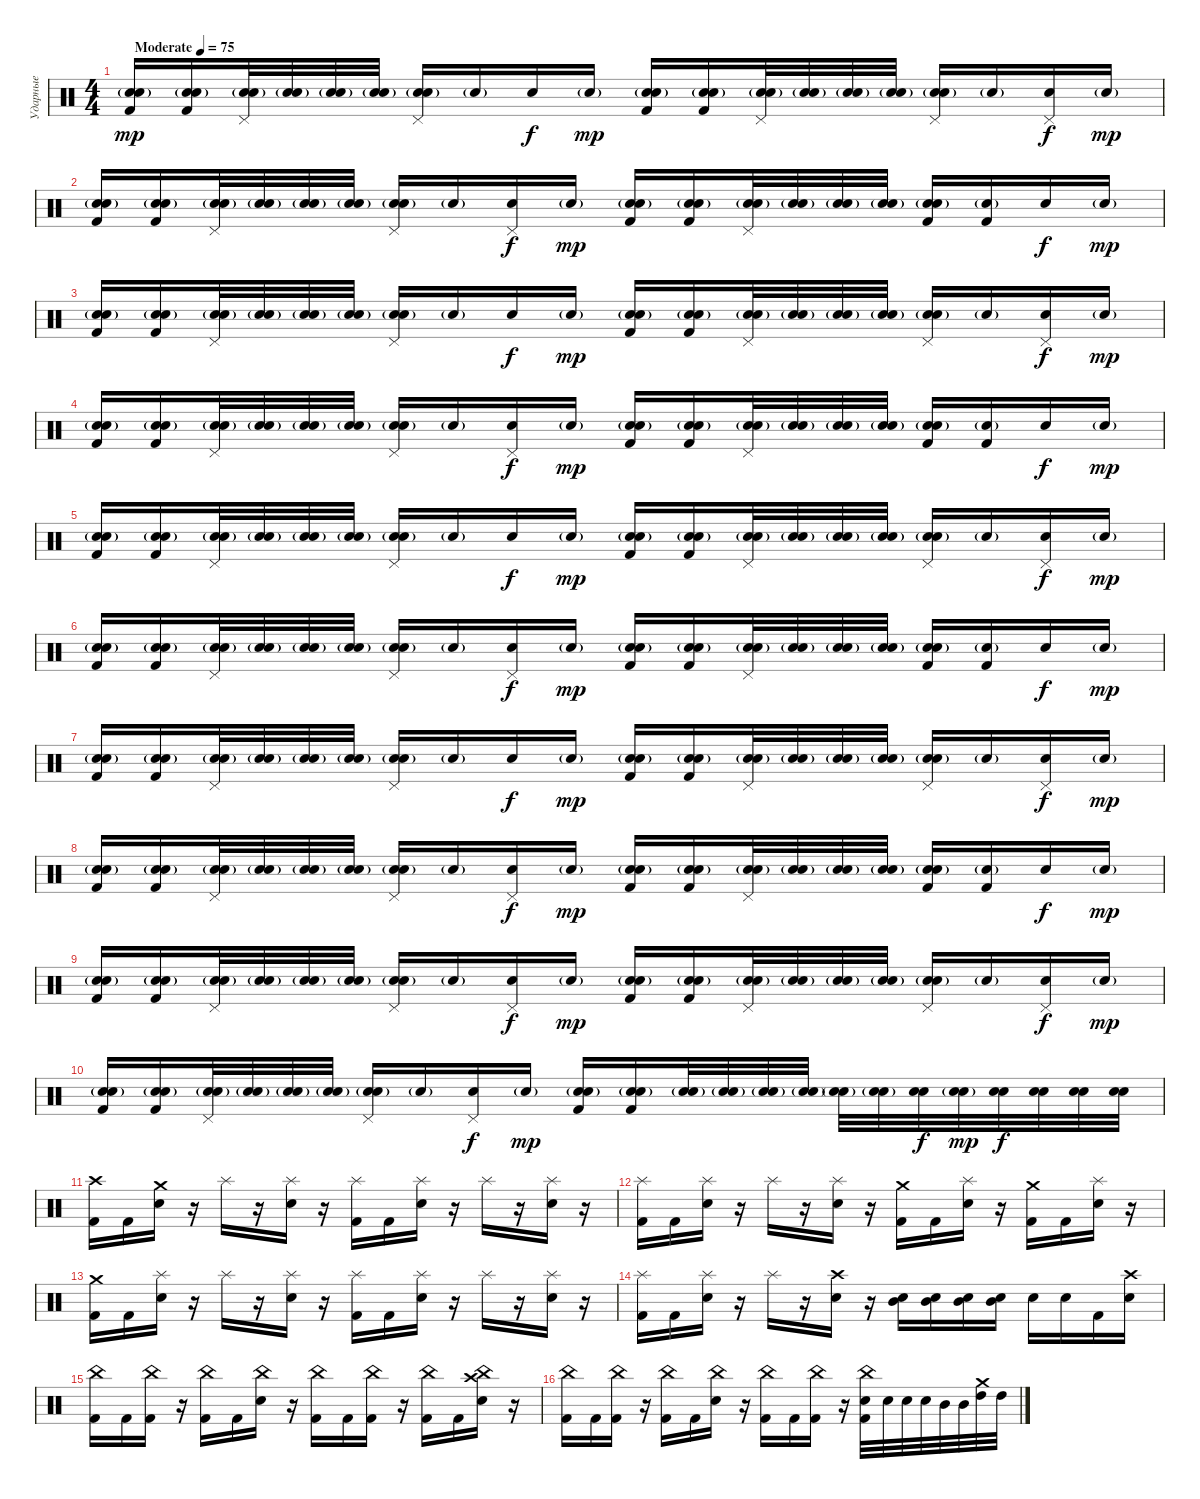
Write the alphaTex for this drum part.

\track ("Ударные" "Ударные") {instrument percussion}
\staff {score}
\articulation defaults
\ts (4 4)
\tempo (75 "Moderate")
\clef neutral
\ks c
("Kick (hit) 2" "Electric Snare (hit)"{g} "Electric Snare (hit)"{g}).16{dy mp} ("Kick (hit) 2" "Electric Snare (hit)"{g} "Electric Snare (hit)"{g}).16 ("Pedal Hi-Hat (hit)" "Electric Snare (hit)"{g} "Electric Snare (hit)"{g}).32 ("Electric Snare (hit)"{g} "Electric Snare (hit)"{g}).32 ("Electric Snare (hit)"{g} "Electric Snare (hit)"{g}).32 ("Electric Snare (hit)"{g} "Electric Snare (hit)"{g}).32 ("Pedal Hi-Hat (hit)" "Electric Snare (hit)"{g} "Electric Snare (hit)").16 "Electric Snare (hit)"{g}.16 "Electric Snare (hit)".16{dy f} "Electric Snare (hit)"{g}.16{dy mp} ("Kick (hit) 2" "Electric Snare (hit)"{g} "Electric Snare (hit)"{g}).16 ("Kick (hit) 2" "Electric Snare (hit)"{g} "Electric Snare (hit)"{g}).16 ("Pedal Hi-Hat (hit)" "Electric Snare (hit)"{g} "Electric Snare (hit)"{g}).32 ("Electric Snare (hit)"{g} "Electric Snare (hit)"{g}).32 ("Electric Snare (hit)"{g} "Electric Snare (hit)"{g}).32 ("Electric Snare (hit)"{g} "Electric Snare (hit)"{g}).32 ("Pedal Hi-Hat (hit)" "Electric Snare (hit)"{g} "Electric Snare (hit)").16 "Electric Snare (hit)"{g}.16 ("Pedal Hi-Hat (hit)" "Electric Snare (hit)").16{dy f} "Electric Snare (hit)"{g}.16{dy mp} |
("Kick (hit) 2" "Electric Snare (hit)"{g} "Electric Snare (hit)"{g}).16 ("Kick (hit) 2" "Electric Snare (hit)"{g} "Electric Snare (hit)"{g}).16 ("Pedal Hi-Hat (hit)" "Electric Snare (hit)"{g} "Electric Snare (hit)"{g}).32 ("Electric Snare (hit)"{g} "Electric Snare (hit)"{g}).32 ("Electric Snare (hit)"{g} "Electric Snare (hit)"{g}).32 ("Electric Snare (hit)"{g} "Electric Snare (hit)"{g}).32 ("Pedal Hi-Hat (hit)" "Electric Snare (hit)"{g} "Electric Snare (hit)").16 "Electric Snare (hit)"{g}.16 ("Pedal Hi-Hat (hit)" "Electric Snare (hit)").16{dy f} "Electric Snare (hit)"{g}.16{dy mp} ("Kick (hit) 2" "Electric Snare (hit)"{g} "Electric Snare (hit)"{g}).16 ("Kick (hit) 2" "Electric Snare (hit)"{g} "Electric Snare (hit)"{g}).16 ("Pedal Hi-Hat (hit)" "Electric Snare (hit)"{g} "Electric Snare (hit)"{g}).32 ("Electric Snare (hit)"{g} "Electric Snare (hit)"{g}).32 ("Electric Snare (hit)"{g} "Electric Snare (hit)"{g}).32 ("Electric Snare (hit)"{g} "Electric Snare (hit)"{g}).32 ("Kick (hit) 2" "Electric Snare (hit)"{g} "Electric Snare (hit)").16 ("Kick (hit) 2" "Electric Snare (hit)"{g}).16 "Electric Snare (hit)".16{dy f} "Electric Snare (hit)"{g}.16{dy mp} |
("Kick (hit) 2" "Electric Snare (hit)"{g} "Electric Snare (hit)"{g}).16 ("Kick (hit) 2" "Electric Snare (hit)"{g} "Electric Snare (hit)"{g}).16 ("Pedal Hi-Hat (hit)" "Electric Snare (hit)"{g} "Electric Snare (hit)"{g}).32 ("Electric Snare (hit)"{g} "Electric Snare (hit)"{g}).32 ("Electric Snare (hit)"{g} "Electric Snare (hit)"{g}).32 ("Electric Snare (hit)"{g} "Electric Snare (hit)"{g}).32 ("Pedal Hi-Hat (hit)" "Electric Snare (hit)"{g} "Electric Snare (hit)").16 "Electric Snare (hit)"{g}.16 "Electric Snare (hit)".16{dy f} "Electric Snare (hit)"{g}.16{dy mp} ("Kick (hit) 2" "Electric Snare (hit)"{g} "Electric Snare (hit)"{g}).16 ("Kick (hit) 2" "Electric Snare (hit)"{g} "Electric Snare (hit)"{g}).16 ("Pedal Hi-Hat (hit)" "Electric Snare (hit)"{g} "Electric Snare (hit)"{g}).32 ("Electric Snare (hit)"{g} "Electric Snare (hit)"{g}).32 ("Electric Snare (hit)"{g} "Electric Snare (hit)"{g}).32 ("Electric Snare (hit)"{g} "Electric Snare (hit)"{g}).32 ("Pedal Hi-Hat (hit)" "Electric Snare (hit)"{g} "Electric Snare (hit)").16 "Electric Snare (hit)"{g}.16 ("Pedal Hi-Hat (hit)" "Electric Snare (hit)").16{dy f} "Electric Snare (hit)"{g}.16{dy mp} |
("Kick (hit) 2" "Electric Snare (hit)"{g} "Electric Snare (hit)"{g}).16 ("Kick (hit) 2" "Electric Snare (hit)"{g} "Electric Snare (hit)"{g}).16 ("Pedal Hi-Hat (hit)" "Electric Snare (hit)"{g} "Electric Snare (hit)"{g}).32 ("Electric Snare (hit)"{g} "Electric Snare (hit)"{g}).32 ("Electric Snare (hit)"{g} "Electric Snare (hit)"{g}).32 ("Electric Snare (hit)"{g} "Electric Snare (hit)"{g}).32 ("Pedal Hi-Hat (hit)" "Electric Snare (hit)"{g} "Electric Snare (hit)").16 "Electric Snare (hit)"{g}.16 ("Pedal Hi-Hat (hit)" "Electric Snare (hit)").16{dy f} "Electric Snare (hit)"{g}.16{dy mp} ("Kick (hit) 2" "Electric Snare (hit)"{g} "Electric Snare (hit)"{g}).16 ("Kick (hit) 2" "Electric Snare (hit)"{g} "Electric Snare (hit)"{g}).16 ("Pedal Hi-Hat (hit)" "Electric Snare (hit)"{g} "Electric Snare (hit)"{g}).32 ("Electric Snare (hit)"{g} "Electric Snare (hit)"{g}).32 ("Electric Snare (hit)"{g} "Electric Snare (hit)"{g}).32 ("Electric Snare (hit)"{g} "Electric Snare (hit)"{g}).32 ("Kick (hit) 2" "Electric Snare (hit)"{g} "Electric Snare (hit)").16 ("Kick (hit) 2" "Electric Snare (hit)"{g}).16 "Electric Snare (hit)".16{dy f} "Electric Snare (hit)"{g}.16{dy mp} |
("Kick (hit) 2" "Electric Snare (hit)"{g} "Electric Snare (hit)"{g}).16 ("Kick (hit) 2" "Electric Snare (hit)"{g} "Electric Snare (hit)"{g}).16 ("Pedal Hi-Hat (hit)" "Electric Snare (hit)"{g} "Electric Snare (hit)"{g}).32 ("Electric Snare (hit)"{g} "Electric Snare (hit)"{g}).32 ("Electric Snare (hit)"{g} "Electric Snare (hit)"{g}).32 ("Electric Snare (hit)"{g} "Electric Snare (hit)"{g}).32 ("Pedal Hi-Hat (hit)" "Electric Snare (hit)"{g} "Electric Snare (hit)").16 "Electric Snare (hit)"{g}.16 "Electric Snare (hit)".16{dy f} "Electric Snare (hit)"{g}.16{dy mp} ("Kick (hit) 2" "Electric Snare (hit)"{g} "Electric Snare (hit)"{g}).16 ("Kick (hit) 2" "Electric Snare (hit)"{g} "Electric Snare (hit)"{g}).16 ("Pedal Hi-Hat (hit)" "Electric Snare (hit)"{g} "Electric Snare (hit)"{g}).32 ("Electric Snare (hit)"{g} "Electric Snare (hit)"{g}).32 ("Electric Snare (hit)"{g} "Electric Snare (hit)"{g}).32 ("Electric Snare (hit)"{g} "Electric Snare (hit)"{g}).32 ("Pedal Hi-Hat (hit)" "Electric Snare (hit)"{g} "Electric Snare (hit)").16 "Electric Snare (hit)"{g}.16 ("Pedal Hi-Hat (hit)" "Electric Snare (hit)").16{dy f} "Electric Snare (hit)"{g}.16{dy mp} |
("Kick (hit) 2" "Electric Snare (hit)"{g} "Electric Snare (hit)"{g}).16 ("Kick (hit) 2" "Electric Snare (hit)"{g} "Electric Snare (hit)"{g}).16 ("Pedal Hi-Hat (hit)" "Electric Snare (hit)"{g} "Electric Snare (hit)"{g}).32 ("Electric Snare (hit)"{g} "Electric Snare (hit)"{g}).32 ("Electric Snare (hit)"{g} "Electric Snare (hit)"{g}).32 ("Electric Snare (hit)"{g} "Electric Snare (hit)"{g}).32 ("Pedal Hi-Hat (hit)" "Electric Snare (hit)"{g} "Electric Snare (hit)").16 "Electric Snare (hit)"{g}.16 ("Pedal Hi-Hat (hit)" "Electric Snare (hit)").16{dy f} "Electric Snare (hit)"{g}.16{dy mp} ("Kick (hit) 2" "Electric Snare (hit)"{g} "Electric Snare (hit)"{g}).16 ("Kick (hit) 2" "Electric Snare (hit)"{g} "Electric Snare (hit)"{g}).16 ("Pedal Hi-Hat (hit)" "Electric Snare (hit)"{g} "Electric Snare (hit)"{g}).32 ("Electric Snare (hit)"{g} "Electric Snare (hit)"{g}).32 ("Electric Snare (hit)"{g} "Electric Snare (hit)"{g}).32 ("Electric Snare (hit)"{g} "Electric Snare (hit)"{g}).32 ("Kick (hit) 2" "Electric Snare (hit)"{g} "Electric Snare (hit)").16 ("Kick (hit) 2" "Electric Snare (hit)"{g}).16 "Electric Snare (hit)".16{dy f} "Electric Snare (hit)"{g}.16{dy mp} |
("Kick (hit) 2" "Electric Snare (hit)"{g} "Electric Snare (hit)"{g}).16 ("Kick (hit) 2" "Electric Snare (hit)"{g} "Electric Snare (hit)"{g}).16 ("Pedal Hi-Hat (hit)" "Electric Snare (hit)"{g} "Electric Snare (hit)"{g}).32 ("Electric Snare (hit)"{g} "Electric Snare (hit)"{g}).32 ("Electric Snare (hit)"{g} "Electric Snare (hit)"{g}).32 ("Electric Snare (hit)"{g} "Electric Snare (hit)"{g}).32 ("Pedal Hi-Hat (hit)" "Electric Snare (hit)"{g} "Electric Snare (hit)").16 "Electric Snare (hit)"{g}.16 "Electric Snare (hit)".16{dy f} "Electric Snare (hit)"{g}.16{dy mp} ("Kick (hit) 2" "Electric Snare (hit)"{g} "Electric Snare (hit)"{g}).16 ("Kick (hit) 2" "Electric Snare (hit)"{g} "Electric Snare (hit)"{g}).16 ("Pedal Hi-Hat (hit)" "Electric Snare (hit)"{g} "Electric Snare (hit)"{g}).32 ("Electric Snare (hit)"{g} "Electric Snare (hit)"{g}).32 ("Electric Snare (hit)"{g} "Electric Snare (hit)"{g}).32 ("Electric Snare (hit)"{g} "Electric Snare (hit)"{g}).32 ("Pedal Hi-Hat (hit)" "Electric Snare (hit)"{g} "Electric Snare (hit)").16 "Electric Snare (hit)"{g}.16 ("Pedal Hi-Hat (hit)" "Electric Snare (hit)").16{dy f} "Electric Snare (hit)"{g}.16{dy mp} |
("Kick (hit) 2" "Electric Snare (hit)"{g} "Electric Snare (hit)"{g}).16 ("Kick (hit) 2" "Electric Snare (hit)"{g} "Electric Snare (hit)"{g}).16 ("Pedal Hi-Hat (hit)" "Electric Snare (hit)"{g} "Electric Snare (hit)"{g}).32 ("Electric Snare (hit)"{g} "Electric Snare (hit)"{g}).32 ("Electric Snare (hit)"{g} "Electric Snare (hit)"{g}).32 ("Electric Snare (hit)"{g} "Electric Snare (hit)"{g}).32 ("Pedal Hi-Hat (hit)" "Electric Snare (hit)"{g} "Electric Snare (hit)").16 "Electric Snare (hit)"{g}.16 ("Pedal Hi-Hat (hit)" "Electric Snare (hit)").16{dy f} "Electric Snare (hit)"{g}.16{dy mp} ("Kick (hit) 2" "Electric Snare (hit)"{g} "Electric Snare (hit)"{g}).16 ("Kick (hit) 2" "Electric Snare (hit)"{g} "Electric Snare (hit)"{g}).16 ("Pedal Hi-Hat (hit)" "Electric Snare (hit)"{g} "Electric Snare (hit)"{g}).32 ("Electric Snare (hit)"{g} "Electric Snare (hit)"{g}).32 ("Electric Snare (hit)"{g} "Electric Snare (hit)"{g}).32 ("Electric Snare (hit)"{g} "Electric Snare (hit)"{g}).32 ("Kick (hit) 2" "Electric Snare (hit)"{g} "Electric Snare (hit)").16 ("Kick (hit) 2" "Electric Snare (hit)"{g}).16 "Electric Snare (hit)".16{dy f} "Electric Snare (hit)"{g}.16{dy mp} |
("Kick (hit) 2" "Electric Snare (hit)"{g} "Electric Snare (hit)"{g}).16 ("Kick (hit) 2" "Electric Snare (hit)"{g} "Electric Snare (hit)"{g}).16 ("Pedal Hi-Hat (hit)" "Electric Snare (hit)"{g} "Electric Snare (hit)"{g}).32 ("Electric Snare (hit)"{g} "Electric Snare (hit)"{g}).32 ("Electric Snare (hit)"{g} "Electric Snare (hit)"{g}).32 ("Electric Snare (hit)"{g} "Electric Snare (hit)"{g}).32 ("Pedal Hi-Hat (hit)" "Electric Snare (hit)"{g} "Electric Snare (hit)").16 "Electric Snare (hit)"{g}.16 ("Pedal Hi-Hat (hit)" "Electric Snare (hit)").16{dy f} "Electric Snare (hit)"{g}.16{dy mp} ("Kick (hit) 2" "Electric Snare (hit)"{g} "Electric Snare (hit)"{g}).16 ("Kick (hit) 2" "Electric Snare (hit)"{g} "Electric Snare (hit)"{g}).16 ("Pedal Hi-Hat (hit)" "Electric Snare (hit)"{g} "Electric Snare (hit)"{g}).32 ("Electric Snare (hit)"{g} "Electric Snare (hit)"{g}).32 ("Electric Snare (hit)"{g} "Electric Snare (hit)"{g}).32 ("Electric Snare (hit)"{g} "Electric Snare (hit)"{g}).32 ("Pedal Hi-Hat (hit)" "Electric Snare (hit)"{g} "Electric Snare (hit)").16 "Electric Snare (hit)"{g}.16 ("Pedal Hi-Hat (hit)" "Electric Snare (hit)").16{dy f} "Electric Snare (hit)"{g}.16{dy mp} |
("Kick (hit) 2" "Electric Snare (hit)"{g} "Electric Snare (hit)"{g}).16 ("Kick (hit) 2" "Electric Snare (hit)"{g} "Electric Snare (hit)"{g}).16 ("Pedal Hi-Hat (hit)" "Electric Snare (hit)"{g} "Electric Snare (hit)"{g}).32 ("Electric Snare (hit)"{g} "Electric Snare (hit)"{g}).32 ("Electric Snare (hit)"{g} "Electric Snare (hit)"{g}).32 ("Electric Snare (hit)"{g} "Electric Snare (hit)"{g}).32 ("Pedal Hi-Hat (hit)" "Electric Snare (hit)"{g} "Electric Snare (hit)").16 "Electric Snare (hit)"{g}.16 ("Pedal Hi-Hat (hit)" "Electric Snare (hit)").16{dy f} "Electric Snare (hit)"{g}.16{dy mp} ("Kick (hit) 2" "Electric Snare (hit)"{g} "Electric Snare (hit)"{g}).16 ("Kick (hit) 2" "Electric Snare (hit)"{g} "Electric Snare (hit)"{g}).16 ("Electric Snare (hit)"{g} "Electric Snare (hit)"{g}).32 ("Electric Snare (hit)"{g} "Electric Snare (hit)"{g}).32 ("Electric Snare (hit)"{g} "Electric Snare (hit)"{g}).32 ("Electric Snare (hit)"{g} "Electric Snare (hit)"{g}).32 ("Electric Snare (hit)"{g} "Electric Snare (hit)").32 ("Electric Snare (hit)" "Electric Snare (hit)"{g}).32 ("Electric Snare (hit)" "Electric Snare (hit)").32{dy f} ("Electric Snare (hit)" "Electric Snare (hit)"{g}).32{dy mp} ("Electric Snare (hit)" "Electric Snare (hit)").32{dy f} ("Electric Snare (hit)" "Electric Snare (hit)").32 ("Electric Snare (hit)" "Electric Snare (hit)").32 ("Electric Snare (hit)" "Electric Snare (hit)").32 |
("Kick (hit) 2" "Crash high (hit)").16 "Kick (hit) 2".16 ("Electric Snare (hit)" "Crash medium (hit)").16 r.16 "Splash (hit)".16 r.16 ("Electric Snare (hit)" "Splash (hit)").16 r.16 ("Kick (hit) 2" "Splash (hit)").16 "Kick (hit) 2".16 ("Electric Snare (hit)" "Splash (hit)").16 r.16 "Splash (hit)".16 r.16 ("Electric Snare (hit)" "Splash (hit)").16 r.16 |
("Kick (hit) 2" "Splash (hit)").16 "Kick (hit) 2".16 ("Electric Snare (hit)" "Splash (hit)").16 r.16 "Splash (hit)".16 r.16 ("Electric Snare (hit)" "Splash (hit)").16 r.16 ("Kick (hit) 2" "Crash medium (hit)").16 "Kick (hit) 2".16 ("Electric Snare (hit)" "Splash (hit)").16 r.16 ("Kick (hit) 2" "Crash medium (hit)").16 "Kick (hit) 2".16 ("Electric Snare (hit)" "Splash (hit)").16 r.16 |
("Kick (hit) 2" "Crash medium (hit)").16 "Kick (hit) 2".16 ("Electric Snare (hit)" "Splash (hit)").16 r.16 "Splash (hit)".16 r.16 ("Electric Snare (hit)" "Splash (hit)").16 r.16 ("Kick (hit) 2" "Splash (hit)").16 "Kick (hit) 2".16 ("Electric Snare (hit)" "Splash (hit)").16 r.16 "Splash (hit)".16 r.16 ("Electric Snare (hit)" "Splash (hit)").16 r.16 |
("Kick (hit) 2" "Splash (hit)").16 "Kick (hit) 2".16 ("Electric Snare (hit)" "Splash (hit)").16 r.16 "Splash (hit)".16 r.16 ("Electric Snare (hit)" "Crash high (hit)").16 r.16 ("Electric Snare (hit)" "Mid Tom (hit)").16 ("Electric Snare (hit)" "Mid Tom (hit)").16 ("Electric Snare (hit)" "Mid Tom (hit)").16 ("Electric Snare (hit)" "Mid Tom (hit)").16 "Electric Snare (hit)".16 "Electric Snare (hit)".16 "Kick (hit) 2".16 ("Electric Snare (hit)" "Crash high (hit)").16 |
("Kick (hit) 2" "China (hit)").16 "Kick (hit) 2".16 ("Kick (hit) 2" "China (hit)").16 r.16 ("Kick (hit) 2" "China (hit)").16 "Kick (hit) 2".16 ("Electric Snare (hit)" "China (hit)").16 r.16 ("Kick (hit) 2" "China (hit)").16 "Kick (hit) 2".16 ("Kick (hit) 2" "China (hit)").16 r.16 ("Kick (hit) 2" "China (hit)").16 "Kick (hit) 2".16 ("Electric Snare (hit)" "Crash high (hit)" "China (hit)").16 r.16 |
("Kick (hit) 2" "China (hit)").16 "Kick (hit) 2".16 ("Kick (hit) 2" "China (hit)").16 r.16 ("Kick (hit) 2" "China (hit)").16 "Kick (hit) 2".16 ("Electric Snare (hit)" "China (hit)").16 r.16 ("Kick (hit) 2" "China (hit)").16 "Kick (hit) 2".16 ("Kick (hit) 2" "China (hit)").16 r.16 ("Kick (hit) 2" "Electric Snare (hit)" "China (hit)").32 "Electric Snare (hit)".32 "Electric Snare (hit)".32 "Electric Snare (hit)".32 "Mid Tom (hit)".32 "Mid Tom (hit)".32 ("High Tom (hit)" "Crash medium (hit)").32 "High Tom (hit)".32
